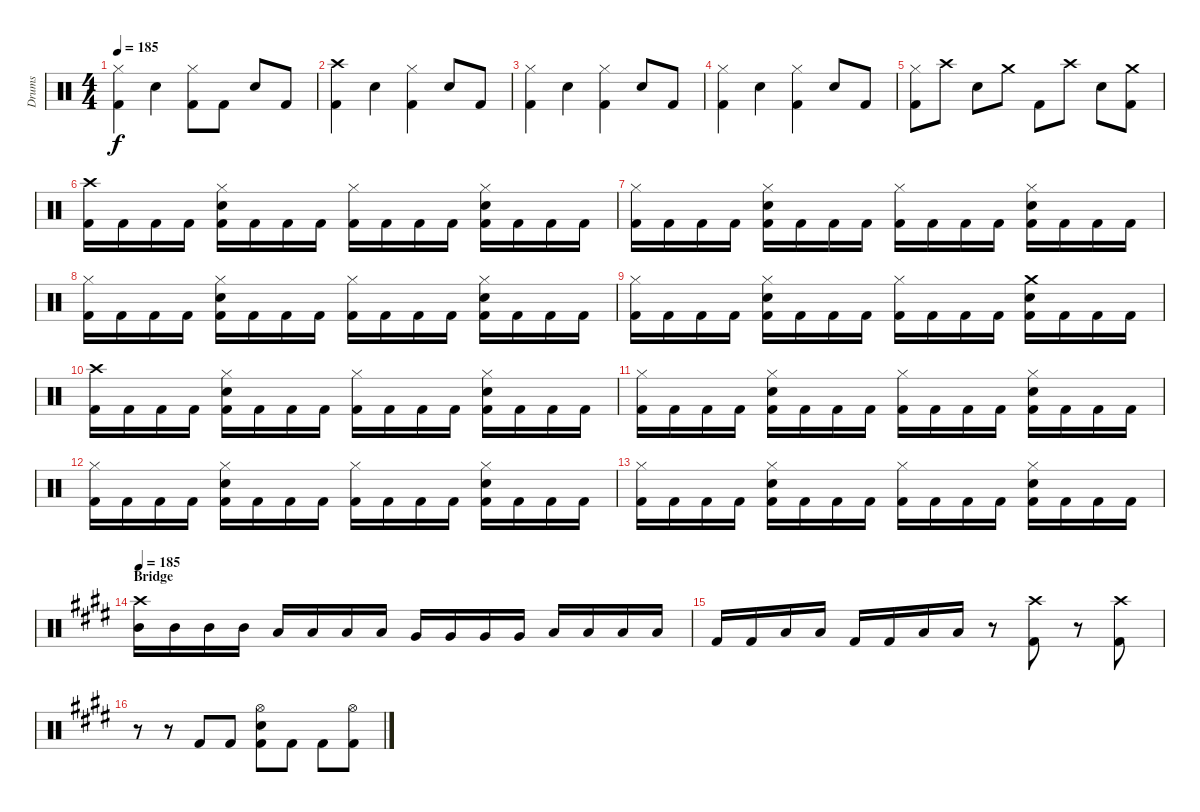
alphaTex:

\track ("Drums" "Drums") {instrument percussion}
\staff {score}
\articulation defaults
\ts (4 4)
\tempo 185
\clef neutral
\ks c
("Hi-Hat (closed)" "Kick (hit) 2").4{dy f} "Electric Snare (hit)".4 ("Hi-Hat (closed)" "Kick (hit) 2").8 "Kick (hit) 2".8 "Electric Snare (hit)".8 "Kick (hit) 2".8 |
("Crash high (hit)" "Kick (hit) 2").4 "Electric Snare (hit)".4 ("Hi-Hat (closed)" "Kick (hit) 2").4 "Electric Snare (hit)".8 "Kick (hit) 2".8 |
("Hi-Hat (closed)" "Kick (hit) 2").4 "Electric Snare (hit)".4 ("Hi-Hat (closed)" "Kick (hit) 2").4 "Electric Snare (hit)".8 "Kick (hit) 2".8 |
("Hi-Hat (closed)" "Kick (hit) 2").4 "Electric Snare (hit)".4 ("Hi-Hat (closed)" "Kick (hit) 2").4 "Electric Snare (hit)".8 "Kick (hit) 2".8 |
("Hi-Hat (closed)" "Kick (hit) 2").8 "Crash high (hit)".8 "Electric Snare (hit)".8 "Crash medium (hit)".8 "Kick (hit) 2".8 "Crash high (hit)".8 "Electric Snare (hit)".8 ("Crash medium (hit)" "Kick (hit) 2").8 |
("Crash high (hit)" "Kick (hit) 2").16 "Kick (hit) 2".16 "Kick (hit) 2".16 "Kick (hit) 2".16 ("Hi-Hat (closed)" "Electric Snare (hit)" "Kick (hit) 2").16 "Kick (hit) 2".16 "Kick (hit) 2".16 "Kick (hit) 2".16 ("Hi-Hat (closed)" "Kick (hit) 2").16 "Kick (hit) 2".16 "Kick (hit) 2".16 "Kick (hit) 2".16 ("Hi-Hat (closed)" "Electric Snare (hit)" "Kick (hit) 2").16 "Kick (hit) 2".16 "Kick (hit) 2".16 "Kick (hit) 2".16 |
("Hi-Hat (closed)" "Kick (hit) 2").16 "Kick (hit) 2".16 "Kick (hit) 2".16 "Kick (hit) 2".16 ("Hi-Hat (closed)" "Electric Snare (hit)" "Kick (hit) 2").16 "Kick (hit) 2".16 "Kick (hit) 2".16 "Kick (hit) 2".16 ("Hi-Hat (closed)" "Kick (hit) 2").16 "Kick (hit) 2".16 "Kick (hit) 2".16 "Kick (hit) 2".16 ("Hi-Hat (closed)" "Electric Snare (hit)" "Kick (hit) 2").16 "Kick (hit) 2".16 "Kick (hit) 2".16 "Kick (hit) 2".16 |
("Hi-Hat (closed)" "Kick (hit) 2").16 "Kick (hit) 2".16 "Kick (hit) 2".16 "Kick (hit) 2".16 ("Hi-Hat (closed)" "Electric Snare (hit)" "Kick (hit) 2").16 "Kick (hit) 2".16 "Kick (hit) 2".16 "Kick (hit) 2".16 ("Hi-Hat (closed)" "Kick (hit) 2").16 "Kick (hit) 2".16 "Kick (hit) 2".16 "Kick (hit) 2".16 ("Hi-Hat (closed)" "Electric Snare (hit)" "Kick (hit) 2").16 "Kick (hit) 2".16 "Kick (hit) 2".16 "Kick (hit) 2".16 |
("Hi-Hat (closed)" "Kick (hit) 2").16 "Kick (hit) 2".16 "Kick (hit) 2".16 "Kick (hit) 2".16 ("Hi-Hat (closed)" "Electric Snare (hit)" "Kick (hit) 2").16 "Kick (hit) 2".16 "Kick (hit) 2".16 "Kick (hit) 2".16 ("Hi-Hat (closed)" "Kick (hit) 2").16 "Kick (hit) 2".16 "Kick (hit) 2".16 "Kick (hit) 2".16 ("Crash medium (hit)" "Electric Snare (hit)" "Kick (hit) 2").16 "Kick (hit) 2".16 "Kick (hit) 2".16 "Kick (hit) 2".16 |
("Crash high (hit)" "Kick (hit) 2").16 "Kick (hit) 2".16 "Kick (hit) 2".16 "Kick (hit) 2".16 ("Hi-Hat (closed)" "Electric Snare (hit)" "Kick (hit) 2").16 "Kick (hit) 2".16 "Kick (hit) 2".16 "Kick (hit) 2".16 ("Hi-Hat (closed)" "Kick (hit) 2").16 "Kick (hit) 2".16 "Kick (hit) 2".16 "Kick (hit) 2".16 ("Hi-Hat (closed)" "Electric Snare (hit)" "Kick (hit) 2").16 "Kick (hit) 2".16 "Kick (hit) 2".16 "Kick (hit) 2".16 |
("Hi-Hat (closed)" "Kick (hit) 2").16 "Kick (hit) 2".16 "Kick (hit) 2".16 "Kick (hit) 2".16 ("Hi-Hat (closed)" "Electric Snare (hit)" "Kick (hit) 2").16 "Kick (hit) 2".16 "Kick (hit) 2".16 "Kick (hit) 2".16 ("Hi-Hat (closed)" "Kick (hit) 2").16 "Kick (hit) 2".16 "Kick (hit) 2".16 "Kick (hit) 2".16 ("Hi-Hat (closed)" "Electric Snare (hit)" "Kick (hit) 2").16 "Kick (hit) 2".16 "Kick (hit) 2".16 "Kick (hit) 2".16 |
("Hi-Hat (closed)" "Kick (hit) 2").16 "Kick (hit) 2".16 "Kick (hit) 2".16 "Kick (hit) 2".16 ("Hi-Hat (closed)" "Electric Snare (hit)" "Kick (hit) 2").16 "Kick (hit) 2".16 "Kick (hit) 2".16 "Kick (hit) 2".16 ("Hi-Hat (closed)" "Kick (hit) 2").16 "Kick (hit) 2".16 "Kick (hit) 2".16 "Kick (hit) 2".16 ("Hi-Hat (closed)" "Electric Snare (hit)" "Kick (hit) 2").16 "Kick (hit) 2".16 "Kick (hit) 2".16 "Kick (hit) 2".16 |
("Hi-Hat (closed)" "Kick (hit) 2").16 "Kick (hit) 2".16 "Kick (hit) 2".16 "Kick (hit) 2".16 ("Hi-Hat (closed)" "Electric Snare (hit)" "Kick (hit) 2").16 "Kick (hit) 2".16 "Kick (hit) 2".16 "Kick (hit) 2".16 ("Hi-Hat (closed)" "Kick (hit) 2").16 "Kick (hit) 2".16 "Kick (hit) 2".16 "Kick (hit) 2".16 ("Hi-Hat (closed)" "Electric Snare (hit)" "Kick (hit) 2").16 "Kick (hit) 2".16 "Kick (hit) 2".16 "Kick (hit) 2".16 |
\section ("" "Bridge")
\tempo 185
\ks e
("Crash high (hit)" "Mid Tom (hit)").16 "Mid Tom (hit)".16 "Mid Tom (hit)".16 "Mid Tom (hit)".16 "Low Tom (hit)".16 "Low Tom (hit)".16 "Low Tom (hit)".16 "Low Tom (hit)".16 "Very Low Tom (hit)".16 "Very Low Tom (hit)".16 "Very Low Tom (hit)".16 "Very Low Tom (hit)".16 "Low Floor Tom (hit)".16 "Low Floor Tom (hit)".16 "Low Floor Tom (hit)".16 "Low Floor Tom (hit)".16 |
"Kick (hit) 2".16 "Kick (hit) 2".16 "Low Floor Tom (hit)".16 "Low Floor Tom (hit)".16 "Kick (hit) 2".16 "Kick (hit) 2".16 "Low Floor Tom (hit)".16 "Low Floor Tom (hit)".16 r.8 ("Crash high (hit)" "Kick (hit) 2").8 r.8 ("Crash high (hit)" "Kick (hit) 2").8 |
r.8 r.8 "Kick (hit) 2".8 "Kick (hit) 2".8 ("Hi-Hat (open)" "Electric Snare (hit)" "Kick (hit) 2").8 "Kick (hit) 2".8 "Kick (hit) 2".8 ("Hi-Hat (open)" "Kick (hit) 2").8
